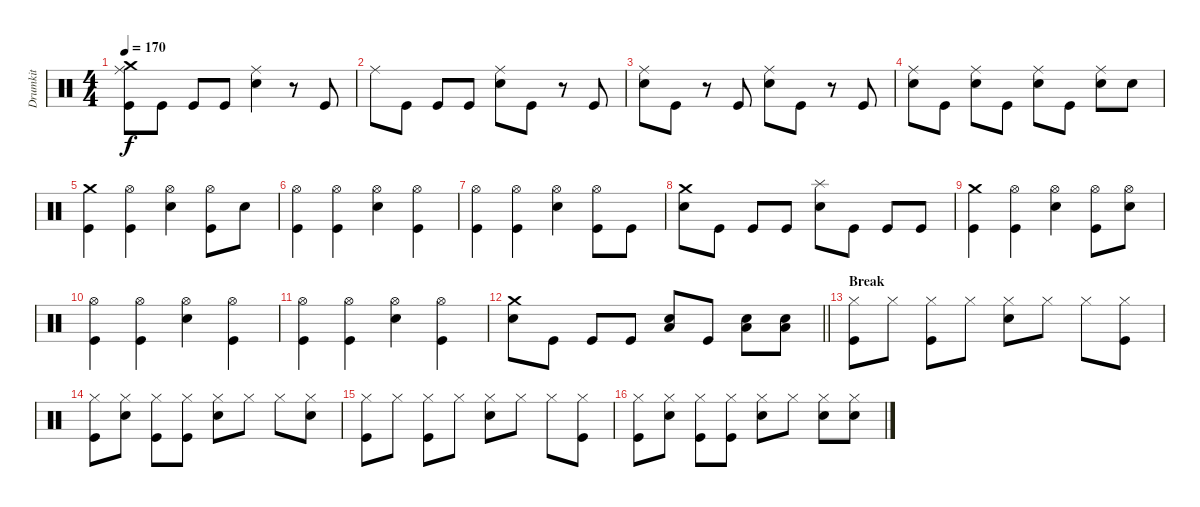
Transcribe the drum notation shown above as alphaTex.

\track ("Drumkit" "Drumkit") {instrument percussion}
\staff {score}
\articulation defaults
\ts (4 4)
\tempo 170
\clef neutral
\ks c
("Ride (middle)" "Crash medium (hit)" "Kick (hit)").8{dy f} "Kick (hit)".8 "Kick (hit)".8 "Kick (hit)".8 ("Ride (middle)" "Snare (hit) 2").4 r.8 "Kick (hit)".8 |
"Ride (middle)".8 "Kick (hit)".8 "Kick (hit)".8 "Kick (hit)".8 ("Ride (middle)" "Snare (hit) 2").8 "Kick (hit)".8 r.8 "Kick (hit)".8 |
("Ride (middle)" "Snare (hit) 2").8 "Kick (hit)".8 r.8 "Kick (hit)".8 ("Ride (middle)" "Snare (hit) 2").8 "Kick (hit)".8 r.8 "Kick (hit)".8 |
("Ride (middle)" "Snare (hit) 2").8 "Kick (hit)".8 ("Ride (middle)" "Snare (hit) 2").8 "Kick (hit)".8 ("Ride (middle)" "Snare (hit) 2").8 "Kick (hit)".8 ("Ride (middle)" "Snare (hit) 2").8 "Snare (hit) 2".8 |
("Crash medium (hit)" "Kick (hit)").4 ("Hi-Hat (open)" "Kick (hit)").4 ("Hi-Hat (open)" "Snare (hit) 2").4 ("Hi-Hat (open)" "Kick (hit)").8 "Snare (hit) 2".8 |
("Hi-Hat (open)" "Kick (hit)").4 ("Hi-Hat (open)" "Kick (hit)").4 ("Hi-Hat (open)" "Snare (hit) 2").4 ("Hi-Hat (open)" "Kick (hit)").4 |
("Hi-Hat (open)" "Kick (hit)").4 ("Hi-Hat (open)" "Kick (hit)").4 ("Hi-Hat (open)" "Snare (hit) 2").4 ("Hi-Hat (open)" "Kick (hit)").8 "Kick (hit)".8 |
("Crash medium (hit)" "Snare (hit) 2").8 "Kick (hit)".8 "Kick (hit)".8 "Kick (hit)".8 ("Splash (hit)" "Snare (hit) 2").8 "Kick (hit)".8 "Kick (hit)".8 "Kick (hit)".8 |
("Crash medium (hit)" "Kick (hit)").4 ("Hi-Hat (open)" "Kick (hit)").4 ("Hi-Hat (open)" "Snare (hit) 2").4 ("Hi-Hat (open)" "Kick (hit)").8 ("Hi-Hat (open)" "Snare (hit) 2").8 |
("Hi-Hat (open)" "Kick (hit)").4 ("Hi-Hat (open)" "Kick (hit)").4 ("Hi-Hat (open)" "Snare (hit) 2").4 ("Hi-Hat (open)" "Kick (hit)").4 |
("Hi-Hat (open)" "Kick (hit)").4 ("Hi-Hat (open)" "Kick (hit)").4 ("Hi-Hat (open)" "Snare (hit) 2").4 ("Hi-Hat (open)" "Kick (hit)").4 |
\barLineRight lightlight
("Crash medium (hit)" "Snare (hit) 2").8 "Kick (hit)".8 "Kick (hit)".8 "Kick (hit)".8 ("Low Tom (hit)" "Snare (hit) 2").8 "Kick (hit)".8 ("Low Floor Tom (hit)" "Snare (hit) 2").8 ("Low Floor Tom (hit)" "Snare (hit) 2").8 |
\section ("" "Break")
("Hi-Hat (closed)" "Kick (hit)").8 "Hi-Hat (closed)".8 ("Hi-Hat (closed)" "Kick (hit)").8 "Hi-Hat (closed)".8 ("Hi-Hat (closed)" "Snare (hit) 2").8 "Hi-Hat (closed)".8 "Hi-Hat (closed)".8 ("Hi-Hat (closed)" "Kick (hit)").8 |
("Hi-Hat (closed)" "Kick (hit)").8 ("Hi-Hat (closed)" "Snare (hit) 2").8 ("Hi-Hat (closed)" "Kick (hit)").8 ("Hi-Hat (closed)" "Kick (hit)").8 ("Hi-Hat (closed)" "Snare (hit) 2").8 "Hi-Hat (closed)".8 "Hi-Hat (closed)".8 ("Hi-Hat (closed)" "Snare (hit) 2").8 |
("Hi-Hat (closed)" "Kick (hit)").8 "Hi-Hat (closed)".8 ("Hi-Hat (closed)" "Kick (hit)").8 "Hi-Hat (closed)".8 ("Hi-Hat (closed)" "Snare (hit) 2").8 "Hi-Hat (closed)".8 "Hi-Hat (closed)".8 ("Hi-Hat (closed)" "Kick (hit)").8 |
("Hi-Hat (closed)" "Kick (hit)").8 ("Hi-Hat (closed)" "Snare (hit) 2").8 ("Hi-Hat (closed)" "Kick (hit)").8 ("Hi-Hat (closed)" "Kick (hit)").8 ("Hi-Hat (closed)" "Snare (hit) 2").8 "Hi-Hat (closed)".8 ("Hi-Hat (closed)" "Snare (hit) 2").8 ("Hi-Hat (closed)" "Snare (hit) 2").8
